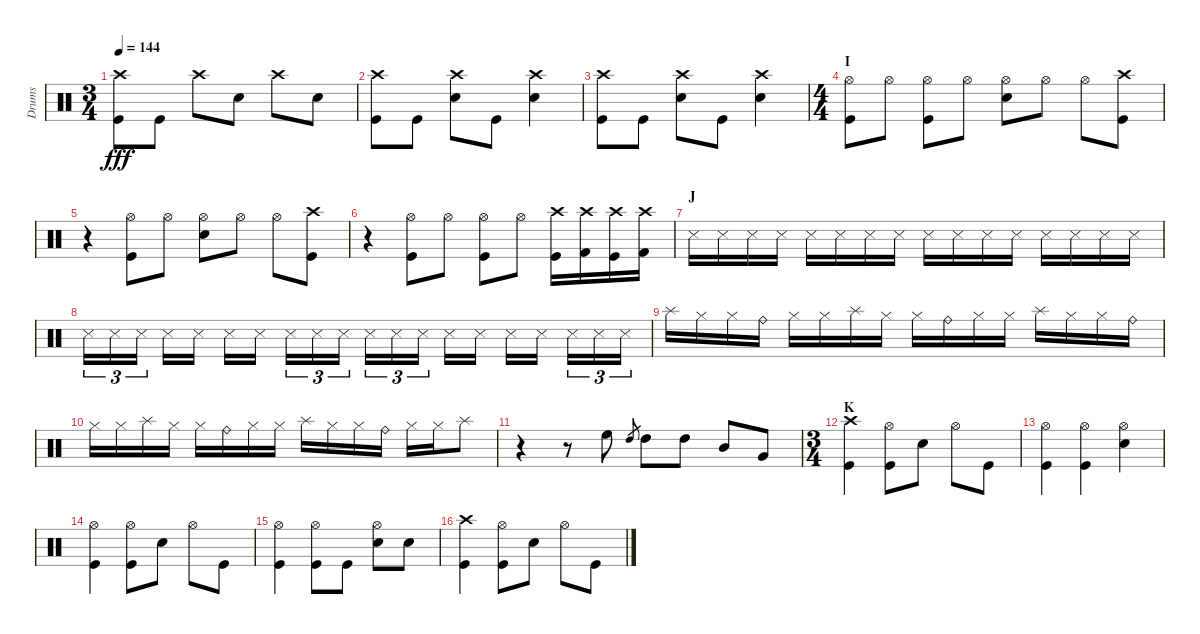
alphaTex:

\track ("Drums" "Drums") {instrument percussion}
\staff {score}
\articulation defaults
\ts (3 4)
\tempo 144
\clef neutral
\ks c
("Crash high (hit)" "Kick (hit)").8{dy fff} "Kick (hit)".8 "Crash high (hit)".8 "Snare (hit) 2".8 "Crash high (hit)".8 "Snare (hit) 2".8 |
("Crash high (hit)" "Kick (hit)").8 "Kick (hit)".8 ("Crash high (hit)" "Snare (hit) 2").8 "Kick (hit)".8 ("Crash high (hit)" "Snare (hit) 2").4 |
("Crash high (hit)" "Kick (hit)").8 "Kick (hit)".8 ("Crash high (hit)" "Snare (hit) 2").8 "Kick (hit)".8 ("Crash high (hit)" "Snare (hit) 2").4 |
\ts (4 4)
\section ("" "I")
("Hi-Hat (open)" "Kick (hit)").8 "Hi-Hat (open)".8 ("Hi-Hat (open)" "Kick (hit)").8 "Hi-Hat (open)".8 ("Hi-Hat (open)" "Snare (hit) 2").8 "Hi-Hat (open)".8 "Hi-Hat (open)".8 ("Crash high (hit)" "Kick (hit)").8 |
r.4 ("Hi-Hat (open)" "Kick (hit)").8 "Hi-Hat (open)".8 ("Hi-Hat (open)" "Snare (hit) 2").8 "Hi-Hat (open)".8 "Hi-Hat (open)".8 ("Crash high (hit)" "Kick (hit)").8 |
r.4 ("Hi-Hat (open)" "Kick (hit)").8 "Hi-Hat (open)".8 ("Hi-Hat (open)" "Kick (hit)").8 "Hi-Hat (open)".8 ("Crash high (hit)" "Kick (hit)").16 ("Crash high (hit)" "Kick (hit) 2").16 ("Crash high (hit)" "Kick (hit)").16 ("Crash high (hit)" "Kick (hit) 2").16 |
\section ("" "J")
"Snare (side stick) 3".16 "Snare (side stick) 3".16 "Snare (side stick) 3".16 "Snare (side stick) 3".16 "Snare (side stick) 3".16 "Snare (side stick) 3".16 "Snare (side stick) 3".16 "Snare (side stick) 3".16 "Snare (side stick) 3".16 "Snare (side stick) 3".16 "Snare (side stick) 3".16 "Snare (side stick) 3".16 "Snare (side stick) 3".16 "Snare (side stick) 3".16 "Snare (side stick) 3".16 "Snare (side stick) 3".16 |
"Snare (side stick) 3".16{tu (3 2)} "Snare (side stick) 3".16{tu (3 2)} "Snare (side stick) 3".16{tu (3 2)} "Snare (side stick) 3".16 "Snare (side stick) 3".16 "Snare (side stick) 3".16 "Snare (side stick) 3".16 "Snare (side stick) 3".16{tu (3 2)} "Snare (side stick) 3".16{tu (3 2)} "Snare (side stick) 3".16{tu (3 2)} "Snare (side stick) 3".16{tu (3 2)} "Snare (side stick) 3".16{tu (3 2)} "Snare (side stick) 3".16{tu (3 2)} "Snare (side stick) 3".16 "Snare (side stick) 3".16 "Snare (side stick) 3".16 "Snare (side stick) 3".16 "Snare (side stick) 3".16{tu (3 2)} "Snare (side stick) 3".16{tu (3 2)} "Snare (side stick) 3".16{tu (3 2)} |
"Splash (hit)".16 "Hi-Hat (closed)".16 "Hi-Hat (closed)".16 "Ride (bell)".16 "Hi-Hat (closed)".16 "Hi-Hat (closed)".16 "Splash (hit)".16 "Hi-Hat (closed)".16 "Hi-Hat (closed)".16 "Ride (bell)".16 "Hi-Hat (closed)".16 "Hi-Hat (closed)".16 "Splash (hit)".16 "Hi-Hat (closed)".16 "Hi-Hat (closed)".16 "Ride (bell)".16 |
"Hi-Hat (closed)".16 "Hi-Hat (closed)".16 "Splash (hit)".16 "Hi-Hat (closed)".16 "Hi-Hat (closed)".16 "Ride (bell)".16 "Hi-Hat (closed)".16 "Hi-Hat (closed)".16 "Splash (hit)".16 "Hi-Hat (closed)".16 "Hi-Hat (closed)".16 "Ride (bell)".16 "Hi-Hat (closed)".16 "Hi-Hat (closed)".16 "Splash (hit)".8 |
r.4 r.8 "High Floor Tom (hit)".8 "High Tom (hit)".8{gr} "High Tom (hit)".8 "High Tom (hit)".8 "Mid Tom (hit)".8 "Very Low Tom (hit)".8 |
\ts (3 4)
\section ("" "K")
("Crash high (hit)" "Kick (hit)").4 ("Hi-Hat (open)" "Kick (hit)").8 "Snare (hit) 2".8 "Hi-Hat (open)".8 "Kick (hit)".8 |
("Hi-Hat (open)" "Kick (hit)").4 ("Hi-Hat (open)" "Kick (hit)").4 ("Hi-Hat (open)" "Snare (hit) 2").4 |
("Hi-Hat (open)" "Kick (hit)").4 ("Hi-Hat (open)" "Kick (hit)").8 "Snare (hit) 2".8 "Hi-Hat (open)".8 "Kick (hit)".8 |
("Hi-Hat (open)" "Kick (hit)").4 ("Hi-Hat (open)" "Kick (hit)").8 "Kick (hit)".8 ("Hi-Hat (open)" "Snare (hit) 2").8 "Snare (hit) 2".8 |
("Crash high (hit)" "Kick (hit)").4 ("Hi-Hat (open)" "Kick (hit)").8 "Snare (hit) 2".8 "Hi-Hat (open)".8 "Kick (hit)".8
